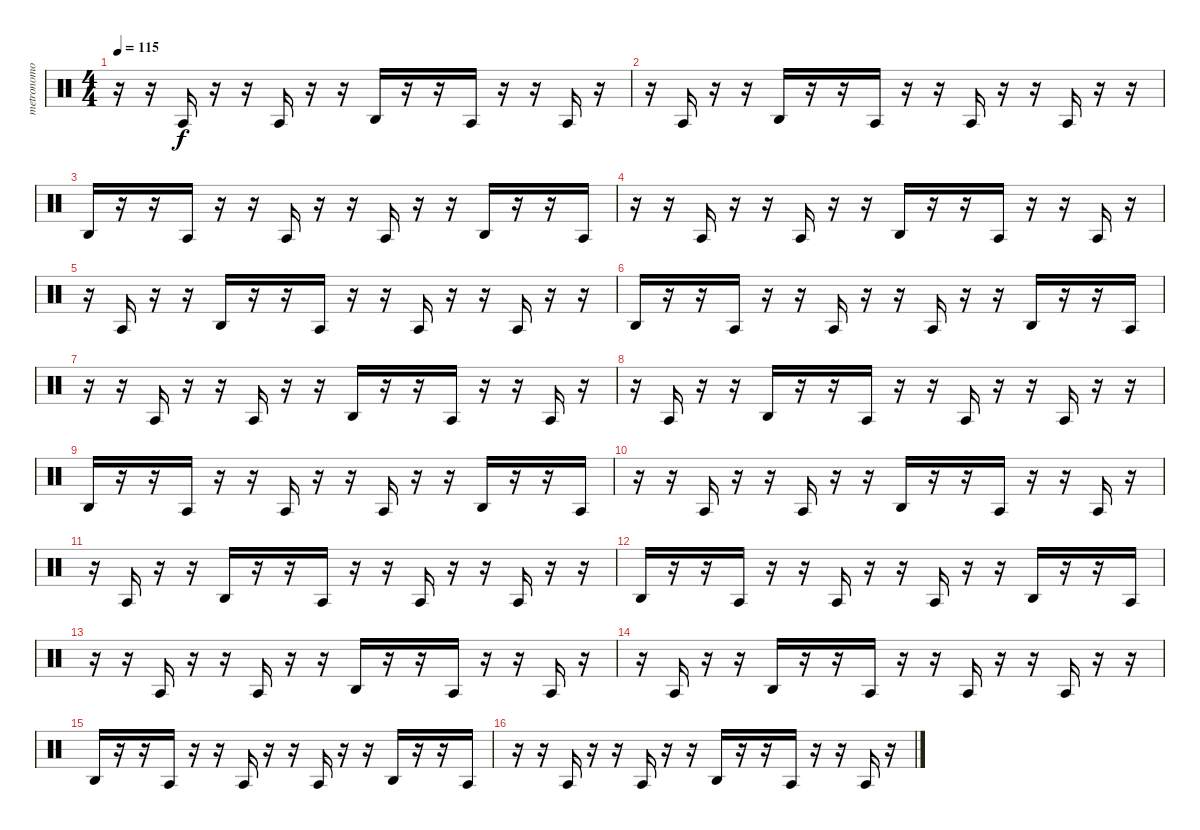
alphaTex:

\track ("metronomo" "metronomo") {instrument percussion}
\staff {score}
\articulation defaults
\ts (4 4)
\tempo 115
\clef neutral
\ks c
r.16{dy f} r.16 "Agogo tow (hit)".16 r.16 r.16 "Agogo tow (hit)".16 r.16 r.16 "Agogo high (hit)".16 r.16 r.16 "Agogo tow (hit)".16 r.16 r.16 "Agogo tow (hit)".16 r.16 |
r.16 "Agogo tow (hit)".16 r.16 r.16 "Agogo high (hit)".16 r.16 r.16 "Agogo tow (hit)".16 r.16 r.16 "Agogo tow (hit)".16 r.16 r.16 "Agogo tow (hit)".16 r.16 r.16 |
"Agogo high (hit)".16 r.16 r.16 "Agogo tow (hit)".16 r.16 r.16 "Agogo tow (hit)".16 r.16 r.16 "Agogo tow (hit)".16 r.16 r.16 "Agogo high (hit)".16 r.16 r.16 "Agogo tow (hit)".16 |
r.16 r.16 "Agogo tow (hit)".16 r.16 r.16 "Agogo tow (hit)".16 r.16 r.16 "Agogo high (hit)".16 r.16 r.16 "Agogo tow (hit)".16 r.16 r.16 "Agogo tow (hit)".16 r.16 |
r.16 "Agogo tow (hit)".16 r.16 r.16 "Agogo high (hit)".16 r.16 r.16 "Agogo tow (hit)".16 r.16 r.16 "Agogo tow (hit)".16 r.16 r.16 "Agogo tow (hit)".16 r.16 r.16 |
"Agogo high (hit)".16 r.16 r.16 "Agogo tow (hit)".16 r.16 r.16 "Agogo tow (hit)".16 r.16 r.16 "Agogo tow (hit)".16 r.16 r.16 "Agogo high (hit)".16 r.16 r.16 "Agogo tow (hit)".16 |
r.16 r.16 "Agogo tow (hit)".16 r.16 r.16 "Agogo tow (hit)".16 r.16 r.16 "Agogo high (hit)".16 r.16 r.16 "Agogo tow (hit)".16 r.16 r.16 "Agogo tow (hit)".16 r.16 |
r.16 "Agogo tow (hit)".16 r.16 r.16 "Agogo high (hit)".16 r.16 r.16 "Agogo tow (hit)".16 r.16 r.16 "Agogo tow (hit)".16 r.16 r.16 "Agogo tow (hit)".16 r.16 r.16 |
"Agogo high (hit)".16 r.16 r.16 "Agogo tow (hit)".16 r.16 r.16 "Agogo tow (hit)".16 r.16 r.16 "Agogo tow (hit)".16 r.16 r.16 "Agogo high (hit)".16 r.16 r.16 "Agogo tow (hit)".16 |
r.16 r.16 "Agogo tow (hit)".16 r.16 r.16 "Agogo tow (hit)".16 r.16 r.16 "Agogo high (hit)".16 r.16 r.16 "Agogo tow (hit)".16 r.16 r.16 "Agogo tow (hit)".16 r.16 |
r.16 "Agogo tow (hit)".16 r.16 r.16 "Agogo high (hit)".16 r.16 r.16 "Agogo tow (hit)".16 r.16 r.16 "Agogo tow (hit)".16 r.16 r.16 "Agogo tow (hit)".16 r.16 r.16 |
"Agogo high (hit)".16 r.16 r.16 "Agogo tow (hit)".16 r.16 r.16 "Agogo tow (hit)".16 r.16 r.16 "Agogo tow (hit)".16 r.16 r.16 "Agogo high (hit)".16 r.16 r.16 "Agogo tow (hit)".16 |
r.16 r.16 "Agogo tow (hit)".16 r.16 r.16 "Agogo tow (hit)".16 r.16 r.16 "Agogo high (hit)".16 r.16 r.16 "Agogo tow (hit)".16 r.16 r.16 "Agogo tow (hit)".16 r.16 |
r.16 "Agogo tow (hit)".16 r.16 r.16 "Agogo high (hit)".16 r.16 r.16 "Agogo tow (hit)".16 r.16 r.16 "Agogo tow (hit)".16 r.16 r.16 "Agogo tow (hit)".16 r.16 r.16 |
"Agogo high (hit)".16 r.16 r.16 "Agogo tow (hit)".16 r.16 r.16 "Agogo tow (hit)".16 r.16 r.16 "Agogo tow (hit)".16 r.16 r.16 "Agogo high (hit)".16 r.16 r.16 "Agogo tow (hit)".16 |
r.16 r.16 "Agogo tow (hit)".16 r.16 r.16 "Agogo tow (hit)".16 r.16 r.16 "Agogo high (hit)".16 r.16 r.16 "Agogo tow (hit)".16 r.16 r.16 "Agogo tow (hit)".16 r.16
